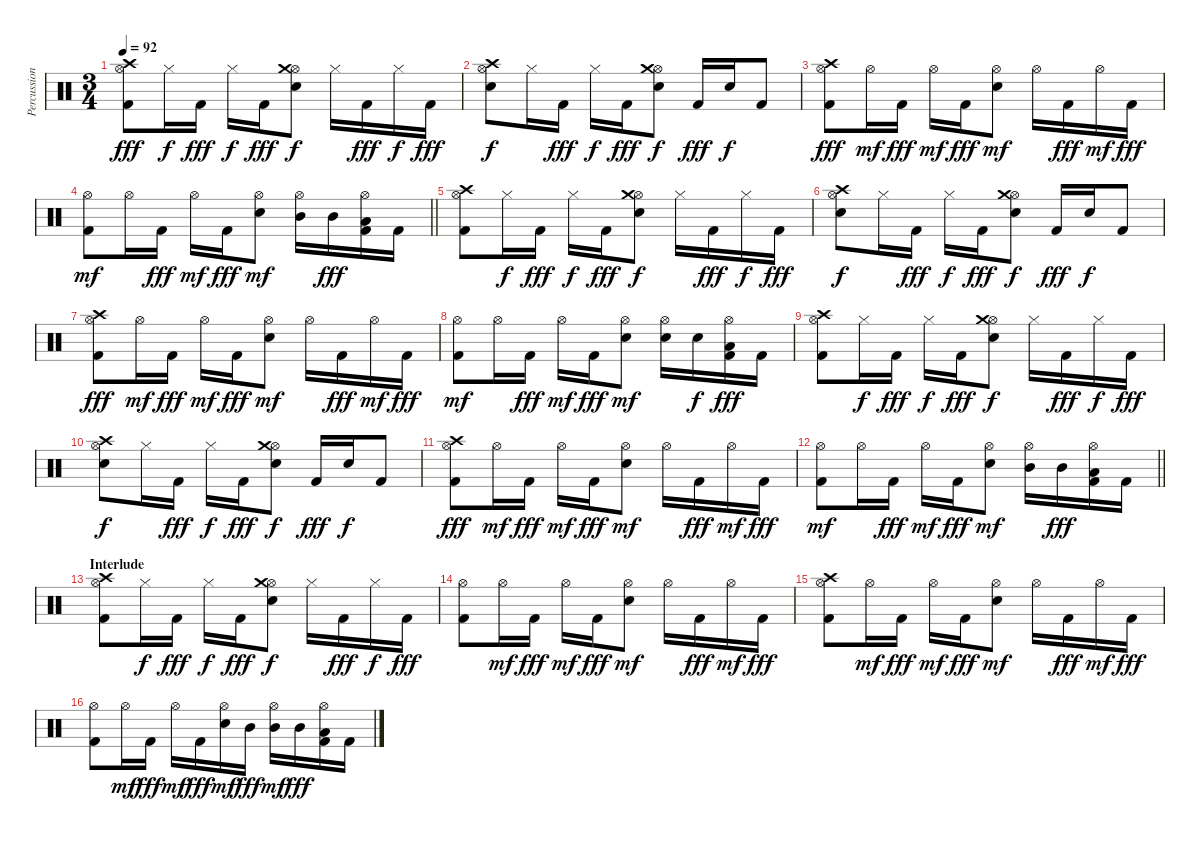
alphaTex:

\track ("Percussion" "Percussion") {instrument percussion}
\staff {score}
\articulation defaults
\ts (3 4)
\tempo 92
\clef neutral
\ks c
("Kick (hit) 2" "Hi-Hat (open)" "Crash high (hit)").8{dy fff} "Hi-Hat (closed)".16{dy f} "Kick (hit) 2".16{dy fff} "Hi-Hat (closed)".16{dy f} "Kick (hit) 2".16{dy fff} ("Electric Snare (hit)" "Hi-Hat (open)" "Crash medium (hit)").8{dy f} "Hi-Hat (closed)".16 "Kick (hit) 2".16{dy fff} "Hi-Hat (closed)".16{dy f} "Kick (hit) 2".16{dy fff} |
("Electric Snare (hit)" "Hi-Hat (open)" "Crash high (hit)").8{dy f} "Hi-Hat (closed)".16 "Kick (hit) 2".16{dy fff} "Hi-Hat (closed)".16{dy f} "Kick (hit) 2".16{dy fff} ("Electric Snare (hit)" "Hi-Hat (open)" "Crash medium (hit)").8{dy f} "Kick (hit) 2".16{dy fff} "Electric Snare (hit)".16{dy f} "Kick (hit) 2".8 |
("Kick (hit) 2" "Hi-Hat (open)" "Crash high (hit)").8{dy fff} "Hi-Hat (open)".16{dy mf} "Kick (hit) 2".16{dy fff} "Hi-Hat (open)".16{dy mf} "Kick (hit) 2".16{dy fff} ("Electric Snare (hit)" "Hi-Hat (open)").8{dy mf} "Hi-Hat (open)".16 "Kick (hit) 2".16{dy fff} "Hi-Hat (open)".16{dy mf} "Kick (hit) 2".16{dy fff} |
\barLineRight lightlight
("Kick (hit) 2" "Hi-Hat (open)").8{dy mf} "Hi-Hat (open)".16 "Kick (hit) 2".16{dy fff} "Hi-Hat (open)".16{dy mf} "Kick (hit) 2".16{dy fff} ("Electric Snare (hit)" "Hi-Hat (open)").8{dy mf} ("Mid Tom (hit)" "Hi-Hat (open)").16 "Mid Tom (hit)".16{dy fff} ("Kick (hit) 2" "Hi-Hat (open)" "Low Tom (hit)").16 "Kick (hit) 2".16 |
("Kick (hit) 2" "Hi-Hat (open)" "Crash high (hit)").8 "Hi-Hat (closed)".16{dy f} "Kick (hit) 2".16{dy fff} "Hi-Hat (closed)".16{dy f} "Kick (hit) 2".16{dy fff} ("Electric Snare (hit)" "Hi-Hat (open)" "Crash medium (hit)").8{dy f} "Hi-Hat (closed)".16 "Kick (hit) 2".16{dy fff} "Hi-Hat (closed)".16{dy f} "Kick (hit) 2".16{dy fff} |
("Electric Snare (hit)" "Hi-Hat (open)" "Crash high (hit)").8{dy f} "Hi-Hat (closed)".16 "Kick (hit) 2".16{dy fff} "Hi-Hat (closed)".16{dy f} "Kick (hit) 2".16{dy fff} ("Electric Snare (hit)" "Hi-Hat (open)" "Crash medium (hit)").8{dy f} "Kick (hit) 2".16{dy fff} "Electric Snare (hit)".16{dy f} "Kick (hit) 2".8 |
("Kick (hit) 2" "Hi-Hat (open)" "Crash high (hit)").8{dy fff} "Hi-Hat (open)".16{dy mf} "Kick (hit) 2".16{dy fff} "Hi-Hat (open)".16{dy mf} "Kick (hit) 2".16{dy fff} ("Electric Snare (hit)" "Hi-Hat (open)").8{dy mf} "Hi-Hat (open)".16 "Kick (hit) 2".16{dy fff} "Hi-Hat (open)".16{dy mf} "Kick (hit) 2".16{dy fff} |
("Kick (hit) 2" "Hi-Hat (open)").8{dy mf} "Hi-Hat (open)".16 "Kick (hit) 2".16{dy fff} "Hi-Hat (open)".16{dy mf} "Kick (hit) 2".16{dy fff} ("Electric Snare (hit)" "Hi-Hat (open)").8{dy mf} ("Electric Snare (hit)" "Hi-Hat (open)").16 "Electric Snare (hit)".16{dy f} ("Kick (hit) 2" "Hi-Hat (open)" "Low Tom (hit)").16{dy fff} "Kick (hit) 2".16 |
("Kick (hit) 2" "Hi-Hat (open)" "Crash high (hit)").8 "Hi-Hat (closed)".16{dy f} "Kick (hit) 2".16{dy fff} "Hi-Hat (closed)".16{dy f} "Kick (hit) 2".16{dy fff} ("Electric Snare (hit)" "Hi-Hat (open)" "Crash medium (hit)").8{dy f} "Hi-Hat (closed)".16 "Kick (hit) 2".16{dy fff} "Hi-Hat (closed)".16{dy f} "Kick (hit) 2".16{dy fff} |
("Electric Snare (hit)" "Hi-Hat (open)" "Crash high (hit)").8{dy f} "Hi-Hat (closed)".16 "Kick (hit) 2".16{dy fff} "Hi-Hat (closed)".16{dy f} "Kick (hit) 2".16{dy fff} ("Electric Snare (hit)" "Hi-Hat (open)" "Crash medium (hit)").8{dy f} "Kick (hit) 2".16{dy fff} "Electric Snare (hit)".16{dy f} "Kick (hit) 2".8 |
("Kick (hit) 2" "Hi-Hat (open)" "Crash high (hit)").8{dy fff} "Hi-Hat (open)".16{dy mf} "Kick (hit) 2".16{dy fff} "Hi-Hat (open)".16{dy mf} "Kick (hit) 2".16{dy fff} ("Electric Snare (hit)" "Hi-Hat (open)").8{dy mf} "Hi-Hat (open)".16 "Kick (hit) 2".16{dy fff} "Hi-Hat (open)".16{dy mf} "Kick (hit) 2".16{dy fff} |
\barLineRight lightlight
("Kick (hit) 2" "Hi-Hat (open)").8{dy mf} "Hi-Hat (open)".16 "Kick (hit) 2".16{dy fff} "Hi-Hat (open)".16{dy mf} "Kick (hit) 2".16{dy fff} ("Electric Snare (hit)" "Hi-Hat (open)").8{dy mf} ("Mid Tom (hit)" "Hi-Hat (open)").16 "Mid Tom (hit)".16{dy fff} ("Kick (hit) 2" "Hi-Hat (open)" "Low Tom (hit)").16 "Kick (hit) 2".16 |
\section ("" "Interlude")
("Kick (hit) 2" "Hi-Hat (open)" "Crash high (hit)").8 "Hi-Hat (closed)".16{dy f} "Kick (hit) 2".16{dy fff} "Hi-Hat (closed)".16{dy f} "Kick (hit) 2".16{dy fff} ("Electric Snare (hit)" "Hi-Hat (open)" "Crash medium (hit)").8{dy f} "Hi-Hat (closed)".16 "Kick (hit) 2".16{dy fff} "Hi-Hat (closed)".16{dy f} "Kick (hit) 2".16{dy fff} |
("Kick (hit) 2" "Hi-Hat (open)").8 "Hi-Hat (open)".16{dy mf} "Kick (hit) 2".16{dy fff} "Hi-Hat (open)".16{dy mf} "Kick (hit) 2".16{dy fff} ("Electric Snare (hit)" "Hi-Hat (open)").8{dy mf} "Hi-Hat (open)".16 "Kick (hit) 2".16{dy fff} "Hi-Hat (open)".16{dy mf} "Kick (hit) 2".16{dy fff} |
("Kick (hit) 2" "Hi-Hat (open)" "Crash high (hit)").8 "Hi-Hat (open)".16{dy mf} "Kick (hit) 2".16{dy fff} "Hi-Hat (open)".16{dy mf} "Kick (hit) 2".16{dy fff} ("Electric Snare (hit)" "Hi-Hat (open)").8{dy mf} "Hi-Hat (open)".16 "Kick (hit) 2".16{dy fff} "Hi-Hat (open)".16{dy mf} "Kick (hit) 2".16{dy fff} |
("Kick (hit) 2" "Hi-Hat (open)").8 "Hi-Hat (open)".16{dy mf} "Kick (hit) 2".16{dy fff} "Hi-Hat (open)".16{dy mf} "Kick (hit) 2".16{dy fff} ("Electric Snare (hit)" "Hi-Hat (open)").16{dy mf} "Mid Tom (hit)".16{dy fff} ("Mid Tom (hit)" "Hi-Hat (open)").16{dy mf} "Mid Tom (hit)".16{dy fff} ("Kick (hit) 2" "Hi-Hat (open)" "Low Tom (hit)").16 "Kick (hit) 2".16
